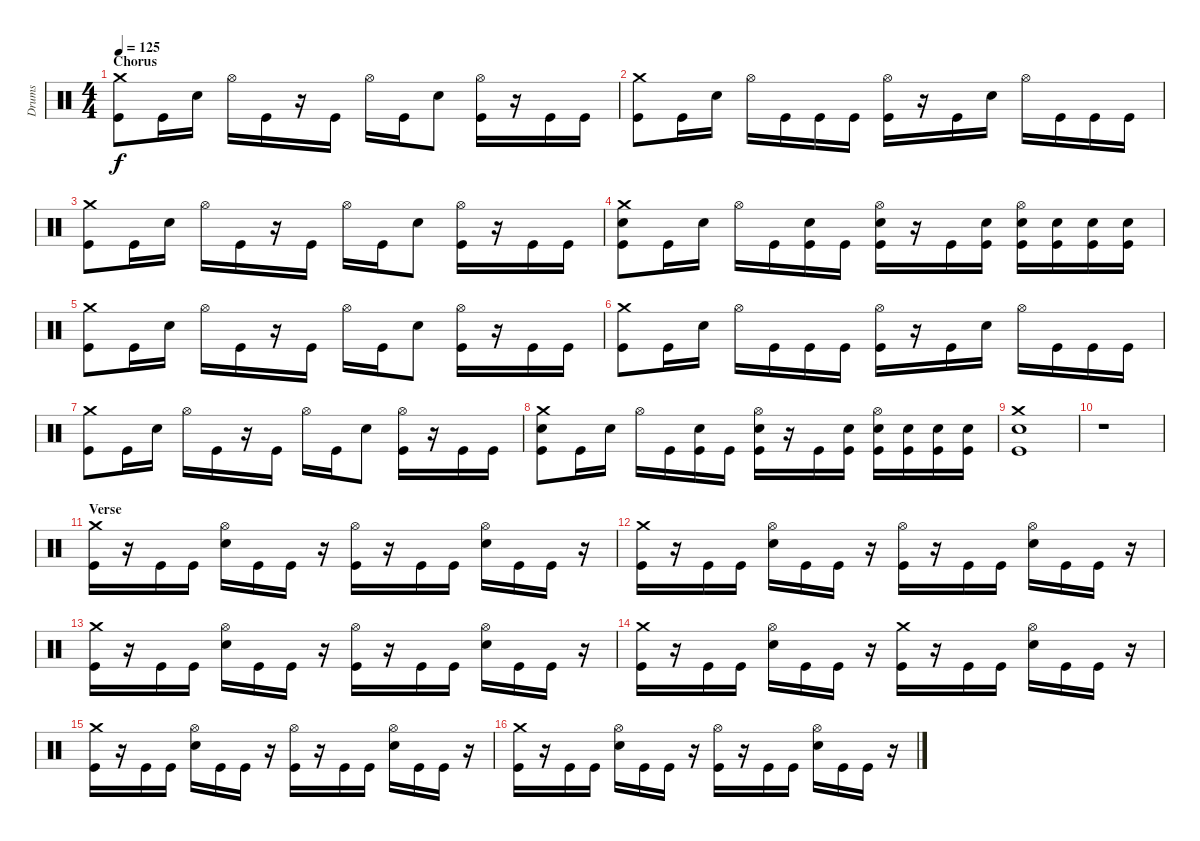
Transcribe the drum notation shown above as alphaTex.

\track ("Drums" "Drums") {instrument percussion}
\staff {score}
\articulation defaults
\ts (4 4)
\section ("" "Chorus")
\tempo 125
\clef neutral
\ks c
("Crash medium (hit)" "Kick (hit)").8{dy f} "Kick (hit)".16 "Electric Snare (hit)".16 "Hi-Hat (open)".16 "Kick (hit)".16 r.16 "Kick (hit)".16 "Hi-Hat (open)".16 "Kick (hit)".16 "Electric Snare (hit)".8 ("Hi-Hat (open)" "Kick (hit)").16 r.16 "Kick (hit)".16 "Kick (hit)".16 |
("Crash medium (hit)" "Kick (hit)").8 "Kick (hit)".16 "Electric Snare (hit)".16 "Hi-Hat (open)".16 "Kick (hit)".16 "Kick (hit)".16 "Kick (hit)".16 ("Hi-Hat (open)" "Kick (hit)").16 r.16 "Kick (hit)".16 "Electric Snare (hit)".16 "Hi-Hat (open)".16 "Kick (hit)".16 "Kick (hit)".16 "Kick (hit)".16 |
("Crash medium (hit)" "Kick (hit)").8 "Kick (hit)".16 "Electric Snare (hit)".16 "Hi-Hat (open)".16 "Kick (hit)".16 r.16 "Kick (hit)".16 "Hi-Hat (open)".16 "Kick (hit)".16 "Electric Snare (hit)".8 ("Hi-Hat (open)" "Kick (hit)").16 r.16 "Kick (hit)".16 "Kick (hit)".16 |
("Crash medium (hit)" "Electric Snare (hit)" "Kick (hit)").8 "Kick (hit)".16 "Electric Snare (hit)".16 "Hi-Hat (open)".16 "Kick (hit)".16 ("Electric Snare (hit)" "Kick (hit)").16 "Kick (hit)".16 ("Hi-Hat (open)" "Electric Snare (hit)" "Kick (hit)").16 r.16 "Kick (hit)".16 ("Electric Snare (hit)" "Kick (hit)").16 ("Hi-Hat (open)" "Electric Snare (hit)" "Kick (hit)").16 ("Electric Snare (hit)" "Kick (hit)").16 ("Electric Snare (hit)" "Kick (hit)").16 ("Electric Snare (hit)" "Kick (hit)").16 |
("Crash medium (hit)" "Kick (hit)").8 "Kick (hit)".16 "Electric Snare (hit)".16 "Hi-Hat (open)".16 "Kick (hit)".16 r.16 "Kick (hit)".16 "Hi-Hat (open)".16 "Kick (hit)".16 "Electric Snare (hit)".8 ("Hi-Hat (open)" "Kick (hit)").16 r.16 "Kick (hit)".16 "Kick (hit)".16 |
("Crash medium (hit)" "Kick (hit)").8 "Kick (hit)".16 "Electric Snare (hit)".16 "Hi-Hat (open)".16 "Kick (hit)".16 "Kick (hit)".16 "Kick (hit)".16 ("Hi-Hat (open)" "Kick (hit)").16 r.16 "Kick (hit)".16 "Electric Snare (hit)".16 "Hi-Hat (open)".16 "Kick (hit)".16 "Kick (hit)".16 "Kick (hit)".16 |
("Crash medium (hit)" "Kick (hit)").8 "Kick (hit)".16 "Electric Snare (hit)".16 "Hi-Hat (open)".16 "Kick (hit)".16 r.16 "Kick (hit)".16 "Hi-Hat (open)".16 "Kick (hit)".16 "Electric Snare (hit)".8 ("Hi-Hat (open)" "Kick (hit)").16 r.16 "Kick (hit)".16 "Kick (hit)".16 |
("Crash medium (hit)" "Electric Snare (hit)" "Kick (hit)").8 "Kick (hit)".16 "Electric Snare (hit)".16 "Hi-Hat (open)".16 "Kick (hit)".16 ("Electric Snare (hit)" "Kick (hit)").16 "Kick (hit)".16 ("Hi-Hat (open)" "Electric Snare (hit)" "Kick (hit)").16 r.16 "Kick (hit)".16 ("Electric Snare (hit)" "Kick (hit)").16 ("Hi-Hat (open)" "Electric Snare (hit)" "Kick (hit)").16 ("Electric Snare (hit)" "Kick (hit)").16 ("Electric Snare (hit)" "Kick (hit)").16 ("Electric Snare (hit)" "Kick (hit)").16 |
("Crash medium (hit)" "Electric Snare (hit)" "Kick (hit)").1 |
r.1 |
\section ("" "Verse")
("Crash medium (hit)" "Kick (hit)").16 r.16 "Kick (hit)".16 "Kick (hit)".16 ("Hi-Hat (open)" "Electric Snare (hit)").16 "Kick (hit)".16 "Kick (hit)".16 r.16 ("Hi-Hat (open)" "Kick (hit)").16 r.16 "Kick (hit)".16 "Kick (hit)".16 ("Hi-Hat (open)" "Electric Snare (hit)").16 "Kick (hit)".16 "Kick (hit)".16 r.16 |
("Crash medium (hit)" "Kick (hit)").16 r.16 "Kick (hit)".16 "Kick (hit)".16 ("Hi-Hat (open)" "Electric Snare (hit)").16 "Kick (hit)".16 "Kick (hit)".16 r.16 ("Hi-Hat (open)" "Kick (hit)").16 r.16 "Kick (hit)".16 "Kick (hit)".16 ("Hi-Hat (open)" "Electric Snare (hit)").16 "Kick (hit)".16 "Kick (hit)".16 r.16 |
("Crash medium (hit)" "Kick (hit)").16 r.16 "Kick (hit)".16 "Kick (hit)".16 ("Hi-Hat (open)" "Electric Snare (hit)").16 "Kick (hit)".16 "Kick (hit)".16 r.16 ("Hi-Hat (open)" "Kick (hit)").16 r.16 "Kick (hit)".16 "Kick (hit)".16 ("Hi-Hat (open)" "Electric Snare (hit)").16 "Kick (hit)".16 "Kick (hit)".16 r.16 |
("Crash medium (hit)" "Kick (hit)").16 r.16 "Kick (hit)".16 "Kick (hit)".16 ("Hi-Hat (open)" "Electric Snare (hit)").16 "Kick (hit)".16 "Kick (hit)".16 r.16 ("Crash medium (hit)" "Kick (hit)").16 r.16 "Kick (hit)".16 "Kick (hit)".16 ("Hi-Hat (open)" "Electric Snare (hit)").16 "Kick (hit)".16 "Kick (hit)".16 r.16 |
("Crash medium (hit)" "Kick (hit)").16 r.16 "Kick (hit)".16 "Kick (hit)".16 ("Hi-Hat (open)" "Electric Snare (hit)").16 "Kick (hit)".16 "Kick (hit)".16 r.16 ("Hi-Hat (open)" "Kick (hit)").16 r.16 "Kick (hit)".16 "Kick (hit)".16 ("Hi-Hat (open)" "Electric Snare (hit)").16 "Kick (hit)".16 "Kick (hit)".16 r.16 |
("Crash medium (hit)" "Kick (hit)").16 r.16 "Kick (hit)".16 "Kick (hit)".16 ("Hi-Hat (open)" "Electric Snare (hit)").16 "Kick (hit)".16 "Kick (hit)".16 r.16 ("Hi-Hat (open)" "Kick (hit)").16 r.16 "Kick (hit)".16 "Kick (hit)".16 ("Hi-Hat (open)" "Electric Snare (hit)").16 "Kick (hit)".16 "Kick (hit)".16 r.16
